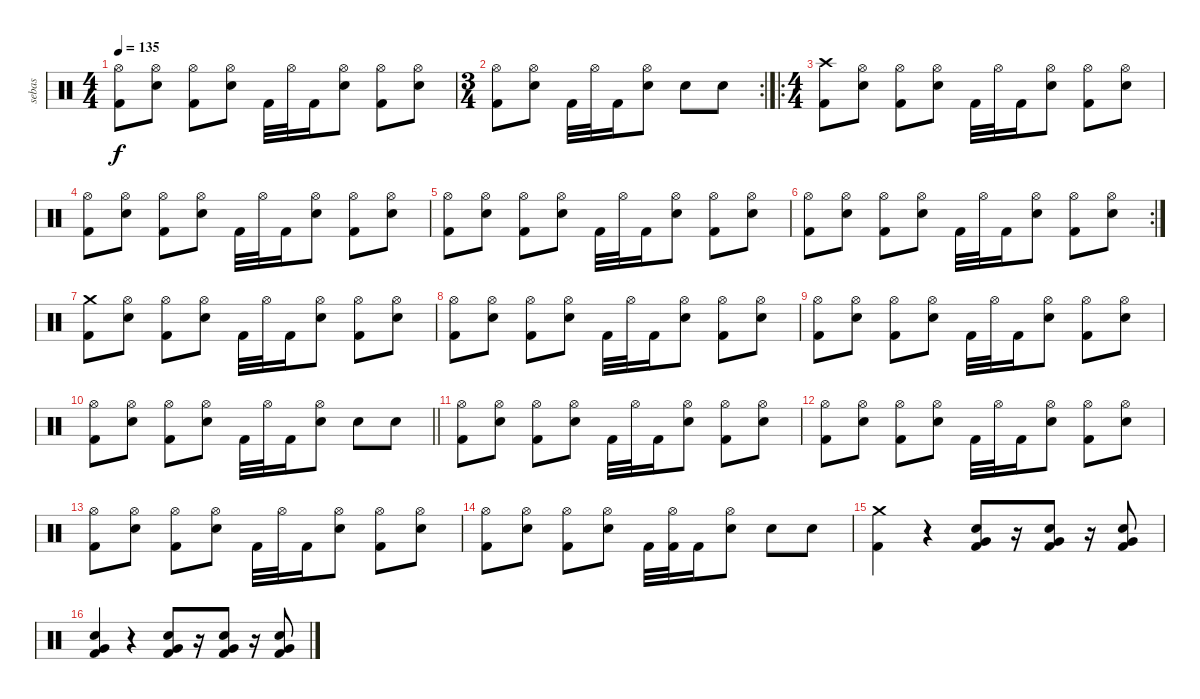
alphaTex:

\track ("sebas" "sebas") {instrument percussion}
\staff {score}
\articulation defaults
\ts (4 4)
\tempo 135
\clef neutral
\ks c
("Hi-Hat (open)" "Kick (hit) 2").8{dy f} ("Hi-Hat (open)" "Snare (hit) 2").8 ("Hi-Hat (open)" "Kick (hit) 2").8 ("Hi-Hat (open)" "Snare (hit) 2").8 "Kick (hit) 2".32 "Hi-Hat (open)".32 "Kick (hit) 2".16 ("Hi-Hat (open)" "Snare (hit) 2").8 ("Hi-Hat (open)" "Kick (hit) 2").8 ("Hi-Hat (open)" "Snare (hit) 2").8 |
\rc 2
\ts (3 4)
("Hi-Hat (open)" "Kick (hit) 2").8 ("Hi-Hat (open)" "Snare (hit) 2").8 "Kick (hit) 2".32 "Hi-Hat (open)".32 "Kick (hit) 2".16 ("Hi-Hat (open)" "Snare (hit) 2").8 "Snare (hit) 2".8 "Snare (hit) 2".8 |
\ro
\ts (4 4)
("Crash high (hit)" "Kick (hit) 2").8 ("Hi-Hat (open)" "Snare (hit) 2").8 ("Hi-Hat (open)" "Kick (hit) 2").8 ("Hi-Hat (open)" "Snare (hit) 2").8 "Kick (hit) 2".32 "Hi-Hat (open)".32 "Kick (hit) 2".16 ("Hi-Hat (open)" "Snare (hit) 2").8 ("Hi-Hat (open)" "Kick (hit) 2").8 ("Hi-Hat (open)" "Snare (hit) 2").8 |
("Hi-Hat (open)" "Kick (hit) 2").8 ("Hi-Hat (open)" "Snare (hit) 2").8 ("Hi-Hat (open)" "Kick (hit) 2").8 ("Hi-Hat (open)" "Snare (hit) 2").8 "Kick (hit) 2".32 "Hi-Hat (open)".32 "Kick (hit) 2".16 ("Hi-Hat (open)" "Snare (hit) 2").8 ("Hi-Hat (open)" "Kick (hit) 2").8 ("Hi-Hat (open)" "Snare (hit) 2").8 |
("Hi-Hat (open)" "Kick (hit) 2").8 ("Hi-Hat (open)" "Snare (hit) 2").8 ("Hi-Hat (open)" "Kick (hit) 2").8 ("Hi-Hat (open)" "Snare (hit) 2").8 "Kick (hit) 2".32 "Hi-Hat (open)".32 "Kick (hit) 2".16 ("Hi-Hat (open)" "Snare (hit) 2").8 ("Hi-Hat (open)" "Kick (hit) 2").8 ("Hi-Hat (open)" "Snare (hit) 2").8 |
\rc 2
("Hi-Hat (open)" "Kick (hit) 2").8 ("Hi-Hat (open)" "Snare (hit) 2").8 ("Hi-Hat (open)" "Kick (hit) 2").8 ("Hi-Hat (open)" "Snare (hit) 2").8 "Kick (hit) 2".32 "Hi-Hat (open)".32 "Kick (hit) 2".16 ("Hi-Hat (open)" "Snare (hit) 2").8 ("Hi-Hat (open)" "Kick (hit) 2").8 ("Hi-Hat (open)" "Snare (hit) 2").8 |
("Crash medium (hit)" "Kick (hit) 2").8 ("Hi-Hat (open)" "Snare (hit) 2").8 ("Hi-Hat (open)" "Kick (hit) 2").8 ("Hi-Hat (open)" "Snare (hit) 2").8 "Kick (hit) 2".32 "Hi-Hat (open)".32 "Kick (hit) 2".16 ("Hi-Hat (open)" "Snare (hit) 2").8 ("Hi-Hat (open)" "Kick (hit) 2").8 ("Hi-Hat (open)" "Snare (hit) 2").8 |
("Hi-Hat (open)" "Kick (hit) 2").8 ("Hi-Hat (open)" "Snare (hit) 2").8 ("Hi-Hat (open)" "Kick (hit) 2").8 ("Hi-Hat (open)" "Snare (hit) 2").8 "Kick (hit) 2".32 "Hi-Hat (open)".32 "Kick (hit) 2".16 ("Hi-Hat (open)" "Snare (hit) 2").8 ("Hi-Hat (open)" "Kick (hit) 2").8 ("Hi-Hat (open)" "Snare (hit) 2").8 |
("Hi-Hat (open)" "Kick (hit) 2").8 ("Hi-Hat (open)" "Snare (hit) 2").8 ("Hi-Hat (open)" "Kick (hit) 2").8 ("Hi-Hat (open)" "Snare (hit) 2").8 "Kick (hit) 2".32 "Hi-Hat (open)".32 "Kick (hit) 2".16 ("Hi-Hat (open)" "Snare (hit) 2").8 ("Hi-Hat (open)" "Kick (hit) 2").8 ("Hi-Hat (open)" "Snare (hit) 2").8 |
\barLineRight lightlight
("Hi-Hat (open)" "Kick (hit) 2").8 ("Hi-Hat (open)" "Snare (hit) 2").8 ("Hi-Hat (open)" "Kick (hit) 2").8 ("Hi-Hat (open)" "Snare (hit) 2").8 "Kick (hit) 2".32 "Hi-Hat (open)".32 "Kick (hit) 2".16 ("Hi-Hat (open)" "Snare (hit) 2").8 "Snare (hit) 2".8 "Snare (hit) 2".8 |
("Hi-Hat (open)" "Kick (hit) 2").8 ("Hi-Hat (open)" "Snare (hit) 2").8 ("Hi-Hat (open)" "Kick (hit) 2").8 ("Hi-Hat (open)" "Snare (hit) 2").8 "Kick (hit) 2".32 "Hi-Hat (open)".32 "Kick (hit) 2".16 ("Hi-Hat (open)" "Snare (hit) 2").8 ("Hi-Hat (open)" "Kick (hit) 2").8 ("Hi-Hat (open)" "Snare (hit) 2").8 |
("Hi-Hat (open)" "Kick (hit) 2").8 ("Hi-Hat (open)" "Snare (hit) 2").8 ("Hi-Hat (open)" "Kick (hit) 2").8 ("Hi-Hat (open)" "Snare (hit) 2").8 "Kick (hit) 2".32 "Hi-Hat (open)".32 "Kick (hit) 2".16 ("Hi-Hat (open)" "Snare (hit) 2").8 ("Hi-Hat (open)" "Kick (hit) 2").8 ("Hi-Hat (open)" "Snare (hit) 2").8 |
("Hi-Hat (open)" "Kick (hit) 2").8 ("Hi-Hat (open)" "Snare (hit) 2").8 ("Hi-Hat (open)" "Kick (hit) 2").8 ("Hi-Hat (open)" "Snare (hit) 2").8 "Kick (hit) 2".32 "Hi-Hat (open)".32 "Kick (hit) 2".16 ("Hi-Hat (open)" "Snare (hit) 2").8 ("Hi-Hat (open)" "Kick (hit) 2").8 ("Hi-Hat (open)" "Snare (hit) 2").8 |
("Hi-Hat (open)" "Kick (hit) 2").8 ("Hi-Hat (open)" "Snare (hit) 2").8 ("Hi-Hat (open)" "Kick (hit) 2").8 ("Hi-Hat (open)" "Snare (hit) 2").8 "Kick (hit) 2".32 ("Hi-Hat (open)" "Kick (hit) 2").32 "Kick (hit) 2".16 ("Hi-Hat (open)" "Snare (hit) 2").8 "Snare (hit) 2".8 "Snare (hit) 2".8 |
("Crash medium (hit)" "Kick (hit) 2").4 r.4 ("Snare (hit) 2" "Kick (hit) 2" "Very Low Tom (hit)").8 r.16 ("Snare (hit) 2" "Kick (hit) 2" "Very Low Tom (hit)").8 r.16 ("Snare (hit) 2" "Kick (hit) 2" "Very Low Tom (hit)").8 |
("Snare (hit) 2" "Kick (hit) 2" "Very Low Tom (hit)").4 r.4 ("Snare (hit) 2" "Kick (hit) 2" "Very Low Tom (hit)").8 r.16 ("Snare (hit) 2" "Kick (hit) 2" "Very Low Tom (hit)").8 r.16 ("Snare (hit) 2" "Kick (hit) 2" "Very Low Tom (hit)").8
